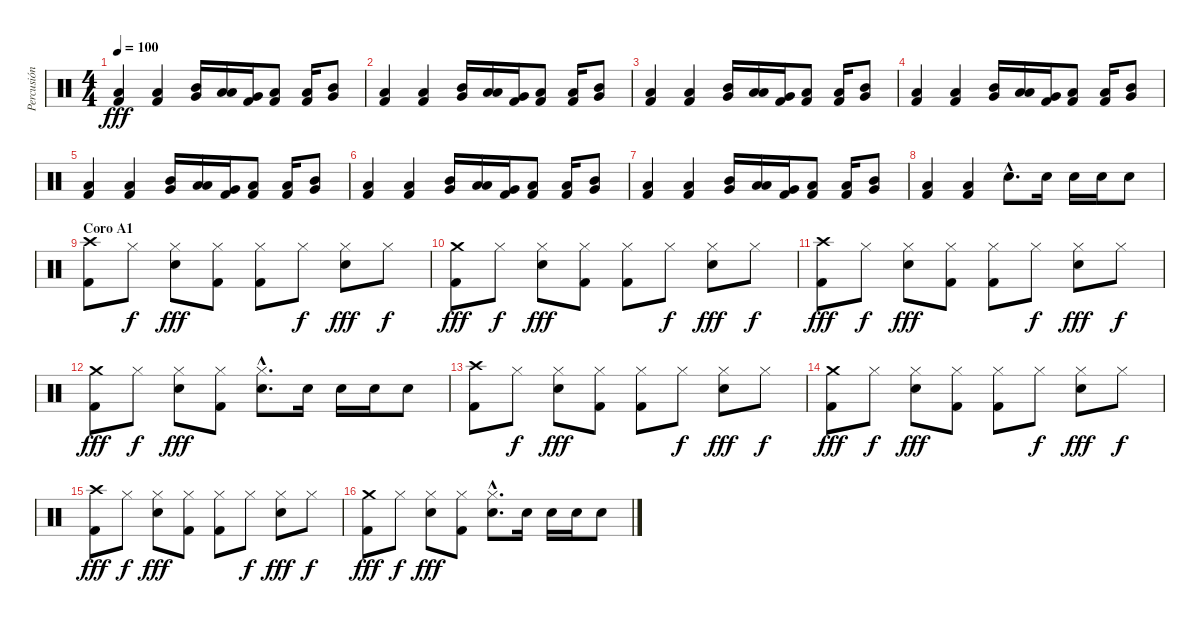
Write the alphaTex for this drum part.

\track ("Percusión" "Percusión") {instrument percussion}
\staff {score}
\articulation defaults
\ts (4 4)
\tempo 100
\clef neutral
\ks c
("Kick (hit) 2" "Low Floor Tom (hit)").4{dy fff} ("Kick (hit) 2" "Low Floor Tom (hit)").4 ("Mid Tom (hit)" "Very Low Tom (hit)").16{bd 480} ("Low Tom (hit)" "Low Floor Tom (hit)").16{bd 480} ("Very Low Tom (hit)" "Kick (hit) 2").16{bd 480} ("Kick (hit) 2" "Low Floor Tom (hit)").8 ("Kick (hit) 2" "Low Floor Tom (hit)").16 ("Mid Tom (hit)" "Very Low Tom (hit)").8 |
("Kick (hit) 2" "Low Floor Tom (hit)").4 ("Kick (hit) 2" "Low Floor Tom (hit)").4 ("Mid Tom (hit)" "Very Low Tom (hit)").16{bd 480} ("Low Tom (hit)" "Low Floor Tom (hit)").16{bd 480} ("Very Low Tom (hit)" "Kick (hit) 2").16{bd 480} ("Kick (hit) 2" "Low Floor Tom (hit)").8 ("Kick (hit) 2" "Low Floor Tom (hit)").16 ("Mid Tom (hit)" "Very Low Tom (hit)").8 |
("Kick (hit) 2" "Low Floor Tom (hit)").4 ("Kick (hit) 2" "Low Floor Tom (hit)").4 ("Mid Tom (hit)" "Very Low Tom (hit)").16{bd 480} ("Low Tom (hit)" "Low Floor Tom (hit)").16{bd 480} ("Very Low Tom (hit)" "Kick (hit) 2").16{bd 480} ("Kick (hit) 2" "Low Floor Tom (hit)").8 ("Kick (hit) 2" "Low Floor Tom (hit)").16 ("Mid Tom (hit)" "Very Low Tom (hit)").8 |
("Kick (hit) 2" "Low Floor Tom (hit)").4 ("Kick (hit) 2" "Low Floor Tom (hit)").4 ("Mid Tom (hit)" "Very Low Tom (hit)").16{bd 480} ("Low Tom (hit)" "Low Floor Tom (hit)").16{bd 480} ("Very Low Tom (hit)" "Kick (hit) 2").16{bd 480} ("Kick (hit) 2" "Low Floor Tom (hit)").8 ("Kick (hit) 2" "Low Floor Tom (hit)").16 ("Mid Tom (hit)" "Very Low Tom (hit)").8 |
("Kick (hit) 2" "Low Floor Tom (hit)").4 ("Kick (hit) 2" "Low Floor Tom (hit)").4 ("Mid Tom (hit)" "Very Low Tom (hit)").16{bd 480} ("Low Tom (hit)" "Low Floor Tom (hit)").16{bd 480} ("Very Low Tom (hit)" "Kick (hit) 2").16{bd 480} ("Kick (hit) 2" "Low Floor Tom (hit)").8 ("Kick (hit) 2" "Low Floor Tom (hit)").16 ("Mid Tom (hit)" "Very Low Tom (hit)").8 |
("Kick (hit) 2" "Low Floor Tom (hit)").4 ("Kick (hit) 2" "Low Floor Tom (hit)").4 ("Mid Tom (hit)" "Very Low Tom (hit)").16{bd 480} ("Low Tom (hit)" "Low Floor Tom (hit)").16{bd 480} ("Very Low Tom (hit)" "Kick (hit) 2").16{bd 480} ("Kick (hit) 2" "Low Floor Tom (hit)").8 ("Kick (hit) 2" "Low Floor Tom (hit)").16 ("Mid Tom (hit)" "Very Low Tom (hit)").8 |
("Kick (hit) 2" "Low Floor Tom (hit)").4 ("Kick (hit) 2" "Low Floor Tom (hit)").4 ("Mid Tom (hit)" "Very Low Tom (hit)").16{bd 480} ("Low Tom (hit)" "Low Floor Tom (hit)").16{bd 480} ("Very Low Tom (hit)" "Kick (hit) 2").16{bd 480} ("Kick (hit) 2" "Low Floor Tom (hit)").8 ("Kick (hit) 2" "Low Floor Tom (hit)").16 ("Mid Tom (hit)" "Very Low Tom (hit)").8 |
("Kick (hit) 2" "Low Floor Tom (hit)").4 ("Kick (hit) 2" "Low Floor Tom (hit)").4 "Snare (hit) 2"{hac}.8{d} "Snare (hit) 2".16 "Snare (hit) 2".16 "Snare (hit) 2".16 "Snare (hit) 2".8 |
\section ("" "Coro A1")
("Crash high (hit)" "Kick (hit) 2").8 "Hi-Hat (closed)".8{dy f} ("Hi-Hat (closed)" "Snare (hit) 2").8{dy fff} ("Hi-Hat (closed)" "Kick (hit) 2").8 ("Hi-Hat (closed)" "Kick (hit) 2").8 "Hi-Hat (closed)".8{dy f} ("Hi-Hat (closed)" "Snare (hit) 2").8{dy fff} "Hi-Hat (closed)".8{dy f} |
("Crash medium (hit)" "Kick (hit) 2").8{dy fff} "Hi-Hat (closed)".8{dy f} ("Hi-Hat (closed)" "Snare (hit) 2").8{dy fff} ("Hi-Hat (closed)" "Kick (hit) 2").8 ("Hi-Hat (closed)" "Kick (hit) 2").8 "Hi-Hat (closed)".8{dy f} ("Hi-Hat (closed)" "Snare (hit) 2").8{dy fff} "Hi-Hat (closed)".8{dy f} |
("Crash high (hit)" "Kick (hit) 2").8{dy fff} "Hi-Hat (closed)".8{dy f} ("Hi-Hat (closed)" "Snare (hit) 2").8{dy fff} ("Hi-Hat (closed)" "Kick (hit) 2").8 ("Hi-Hat (closed)" "Kick (hit) 2").8 "Hi-Hat (closed)".8{dy f} ("Hi-Hat (closed)" "Snare (hit) 2").8{dy fff} "Hi-Hat (closed)".8{dy f} |
("Crash medium (hit)" "Kick (hit) 2").8{dy fff} "Hi-Hat (closed)".8{dy f} ("Hi-Hat (closed)" "Snare (hit) 2").8{dy fff} ("Hi-Hat (closed)" "Kick (hit) 2").8 ("Hi-Hat (closed)"{hac} "Snare (hit) 2"{hac}).8{d} "Snare (hit) 2".16 "Snare (hit) 2".16 "Snare (hit) 2".16 "Snare (hit) 2".8 |
("Crash high (hit)" "Kick (hit) 2").8 "Hi-Hat (closed)".8{dy f} ("Hi-Hat (closed)" "Snare (hit) 2").8{dy fff} ("Hi-Hat (closed)" "Kick (hit) 2").8 ("Hi-Hat (closed)" "Kick (hit) 2").8 "Hi-Hat (closed)".8{dy f} ("Hi-Hat (closed)" "Snare (hit) 2").8{dy fff} "Hi-Hat (closed)".8{dy f} |
("Crash medium (hit)" "Kick (hit) 2").8{dy fff} "Hi-Hat (closed)".8{dy f} ("Hi-Hat (closed)" "Snare (hit) 2").8{dy fff} ("Hi-Hat (closed)" "Kick (hit) 2").8 ("Hi-Hat (closed)" "Kick (hit) 2").8 "Hi-Hat (closed)".8{dy f} ("Hi-Hat (closed)" "Snare (hit) 2").8{dy fff} "Hi-Hat (closed)".8{dy f} |
("Crash high (hit)" "Kick (hit) 2").8{dy fff} "Hi-Hat (closed)".8{dy f} ("Hi-Hat (closed)" "Snare (hit) 2").8{dy fff} ("Hi-Hat (closed)" "Kick (hit) 2").8 ("Hi-Hat (closed)" "Kick (hit) 2").8 "Hi-Hat (closed)".8{dy f} ("Hi-Hat (closed)" "Snare (hit) 2").8{dy fff} "Hi-Hat (closed)".8{dy f} |
("Crash medium (hit)" "Kick (hit) 2").8{dy fff} "Hi-Hat (closed)".8{dy f} ("Hi-Hat (closed)" "Snare (hit) 2").8{dy fff} ("Hi-Hat (closed)" "Kick (hit) 2").8 ("Hi-Hat (closed)"{hac} "Snare (hit) 2"{hac}).8{d} "Snare (hit) 2".16 "Snare (hit) 2".16 "Snare (hit) 2".16 "Snare (hit) 2".8
